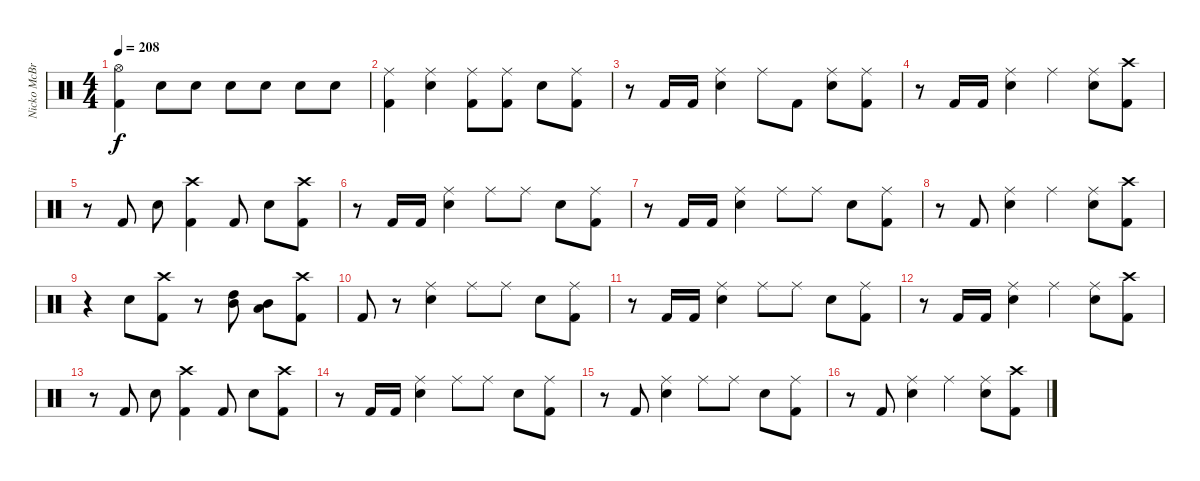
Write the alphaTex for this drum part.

\track ("Nicko McBrain" "Nicko McBr") {instrument percussion}
\staff {score}
\articulation defaults
\ts (4 4)
\tempo 208
\clef neutral
\ks c
("Hi-Hat (open)" "Kick (hit) 2").4{dy f} "Electric Snare (hit)".8 "Electric Snare (hit)".8 "Electric Snare (hit)".8 "Electric Snare (hit)".8 "Electric Snare (hit)".8 "Electric Snare (hit)".8 |
("Ride (middle)" "Kick (hit) 2").4 ("Ride (middle)" "Electric Snare (hit)").4 ("Ride (middle)" "Kick (hit) 2").8 ("Ride (middle)" "Kick (hit) 2").8 "Electric Snare (hit)".8 ("Ride (middle)" "Kick (hit) 2").8 |
r.8 "Kick (hit) 2".16 "Kick (hit) 2".16 ("Ride (middle)" "Electric Snare (hit)").4 "Ride (middle)".8 "Kick (hit) 2".8 ("Ride (middle)" "Electric Snare (hit)").8 ("Ride (middle)" "Kick (hit) 2").8 |
r.8 "Kick (hit) 2".16 "Kick (hit) 2".16 ("Ride (middle)" "Electric Snare (hit)").4 "Ride (middle)".4 ("Ride (middle)" "Electric Snare (hit)").8 ("Crash high (hit)" "Kick (hit) 2").8 |
r.8 "Kick (hit) 2".8 "Electric Snare (hit)".8 ("Crash high (hit)" "Kick (hit) 2").4 "Kick (hit) 2".8 "Electric Snare (hit)".8 ("Crash high (hit)" "Kick (hit) 2").8 |
r.8 "Kick (hit) 2".16 "Kick (hit) 2".16 ("Ride (middle)" "Electric Snare (hit)").4 "Ride (middle)".8 "Ride (middle)".8 "Electric Snare (hit)".8 ("Ride (middle)" "Kick (hit) 2").8 |
r.8 "Kick (hit) 2".16 "Kick (hit) 2".16 ("Ride (middle)" "Electric Snare (hit)").4 "Ride (middle)".8 "Ride (middle)".8 "Electric Snare (hit)".8 ("Ride (middle)" "Kick (hit) 2").8 |
r.8 "Kick (hit) 2".8 ("Ride (middle)" "Electric Snare (hit)").4 "Ride (middle)".4 ("Ride (middle)" "Electric Snare (hit)").8 ("Crash high (hit)" "Kick (hit) 2").8 |
r.4 "Electric Snare (hit)".8 ("Crash high (hit)" "Kick (hit) 2").8 r.8 ("High Tom (hit)" "Mid Tom (hit)").8 ("Mid Tom (hit)" "Low Tom (hit)").8 ("Crash high (hit)" "Kick (hit) 2").8 |
"Kick (hit) 2".8 r.8 ("Ride (middle)" "Electric Snare (hit)").4 "Ride (middle)".8 "Ride (middle)".8 "Electric Snare (hit)".8 ("Ride (middle)" "Kick (hit) 2").8 |
r.8 "Kick (hit) 2".16 "Kick (hit) 2".16 ("Ride (middle)" "Electric Snare (hit)").4 "Ride (middle)".8 "Ride (middle)".8 "Electric Snare (hit)".8 ("Ride (middle)" "Kick (hit) 2").8 |
r.8 "Kick (hit) 2".16 "Kick (hit) 2".16 ("Ride (middle)" "Electric Snare (hit)").4 "Ride (middle)".4 ("Ride (middle)" "Electric Snare (hit)").8 ("Crash high (hit)" "Kick (hit) 2").8 |
r.8 "Kick (hit) 2".8 "Electric Snare (hit)".8 ("Crash high (hit)" "Kick (hit) 2").4 "Kick (hit) 2".8 "Electric Snare (hit)".8 ("Crash high (hit)" "Kick (hit) 2").8 |
r.8 "Kick (hit) 2".16 "Kick (hit) 2".16 ("Ride (middle)" "Electric Snare (hit)").4 "Ride (middle)".8 "Ride (middle)".8 "Electric Snare (hit)".8 ("Ride (middle)" "Kick (hit) 2").8 |
r.8 "Kick (hit) 2".8 ("Ride (middle)" "Electric Snare (hit)").4 "Ride (middle)".8 "Ride (middle)".8 "Electric Snare (hit)".8 ("Ride (middle)" "Kick (hit) 2").8 |
r.8 "Kick (hit) 2".8 ("Ride (middle)" "Electric Snare (hit)").4 "Ride (middle)".4 ("Ride (middle)" "Electric Snare (hit)").8 ("Crash high (hit)" "Kick (hit) 2").8
